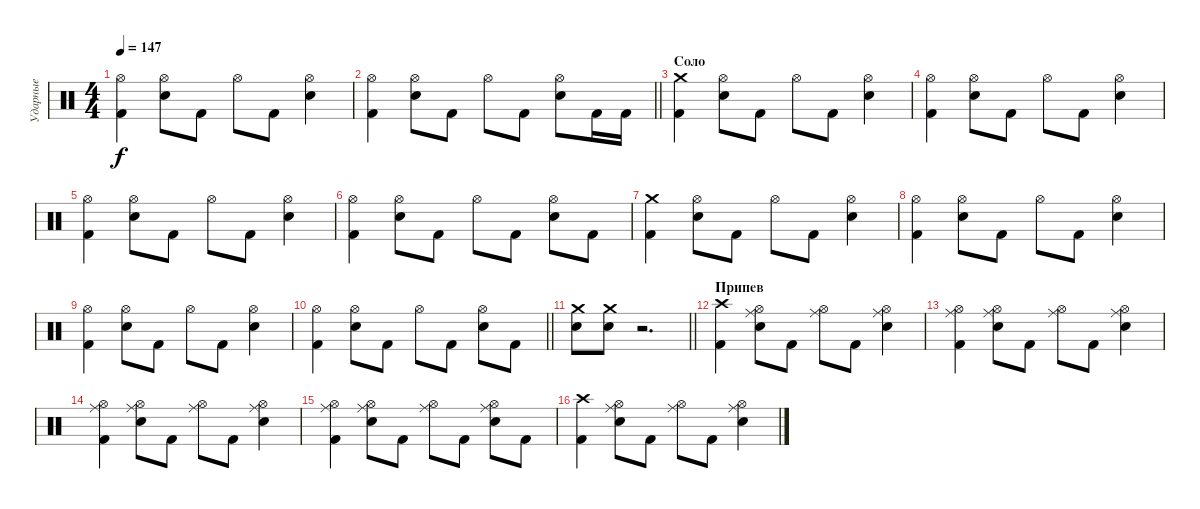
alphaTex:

\track ("Ударные" "Ударные") {instrument percussion}
\staff {score}
\articulation defaults
\ts (4 4)
\tempo 147
\clef neutral
\ks c
("Hi-Hat (open)" "Kick (hit) 2").4{dy f} ("Hi-Hat (open)" "Snare (hit) 2").8 "Kick (hit) 2".8 "Hi-Hat (open)".8 "Kick (hit) 2".8 ("Hi-Hat (open)" "Snare (hit) 2").4 |
\barLineRight lightlight
("Hi-Hat (open)" "Kick (hit) 2").4 ("Hi-Hat (open)" "Snare (hit) 2").8 "Kick (hit) 2".8 "Hi-Hat (open)".8 "Kick (hit) 2".8 ("Hi-Hat (open)" "Snare (hit) 2").8 "Kick (hit) 2".16 "Kick (hit) 2".16 |
\section ("" "Соло")
("Crash medium (hit)" "Kick (hit) 2").4 ("Hi-Hat (open)" "Snare (hit) 2").8 "Kick (hit) 2".8 "Hi-Hat (open)".8 "Kick (hit) 2".8 ("Hi-Hat (open)" "Snare (hit) 2").4 |
("Hi-Hat (open)" "Kick (hit) 2").4 ("Hi-Hat (open)" "Snare (hit) 2").8 "Kick (hit) 2".8 "Hi-Hat (open)".8 "Kick (hit) 2".8 ("Hi-Hat (open)" "Snare (hit) 2").4 |
("Hi-Hat (open)" "Kick (hit) 2").4 ("Hi-Hat (open)" "Snare (hit) 2").8 "Kick (hit) 2".8 "Hi-Hat (open)".8 "Kick (hit) 2".8 ("Hi-Hat (open)" "Snare (hit) 2").4 |
("Hi-Hat (open)" "Kick (hit) 2").4 ("Hi-Hat (open)" "Snare (hit) 2").8 "Kick (hit) 2".8 "Hi-Hat (open)".8 "Kick (hit) 2".8 ("Hi-Hat (open)" "Snare (hit) 2").8 "Kick (hit) 2".8 |
("Crash medium (hit)" "Kick (hit) 2").4 ("Hi-Hat (open)" "Snare (hit) 2").8 "Kick (hit) 2".8 "Hi-Hat (open)".8 "Kick (hit) 2".8 ("Hi-Hat (open)" "Snare (hit) 2").4 |
("Hi-Hat (open)" "Kick (hit) 2").4 ("Hi-Hat (open)" "Snare (hit) 2").8 "Kick (hit) 2".8 "Hi-Hat (open)".8 "Kick (hit) 2".8 ("Hi-Hat (open)" "Snare (hit) 2").4 |
("Hi-Hat (open)" "Kick (hit) 2").4 ("Hi-Hat (open)" "Snare (hit) 2").8 "Kick (hit) 2".8 "Hi-Hat (open)".8 "Kick (hit) 2".8 ("Hi-Hat (open)" "Snare (hit) 2").4 |
\barLineRight lightlight
("Hi-Hat (open)" "Kick (hit) 2").4 ("Hi-Hat (open)" "Snare (hit) 2").8 "Kick (hit) 2".8 "Hi-Hat (open)".8 "Kick (hit) 2".8 ("Hi-Hat (open)" "Snare (hit) 2").8 "Kick (hit) 2".8 |
\barLineRight lightlight
("Crash medium (hit)" "Snare (hit) 2").8 ("Crash medium (hit)" "Snare (hit) 2").8 r.2{d} |
\section ("" "Припев")
("Crash high (hit)" "Kick (hit) 2").4 ("Ride (middle)" "Hi-Hat (open)" "Snare (hit) 2").8 "Kick (hit) 2".8 ("Ride (middle)" "Hi-Hat (open)").8 "Kick (hit) 2".8 ("Ride (middle)" "Hi-Hat (open)" "Snare (hit) 2").4 |
("Ride (middle)" "Hi-Hat (open)" "Kick (hit) 2").4 ("Ride (middle)" "Hi-Hat (open)" "Snare (hit) 2").8 "Kick (hit) 2".8 ("Ride (middle)" "Hi-Hat (open)").8 "Kick (hit) 2".8 ("Ride (middle)" "Hi-Hat (open)" "Snare (hit) 2").4 |
("Ride (middle)" "Hi-Hat (open)" "Kick (hit) 2").4 ("Ride (middle)" "Hi-Hat (open)" "Snare (hit) 2").8 "Kick (hit) 2".8 ("Ride (middle)" "Hi-Hat (open)").8 "Kick (hit) 2".8 ("Ride (middle)" "Hi-Hat (open)" "Snare (hit) 2").4 |
("Ride (middle)" "Hi-Hat (open)" "Kick (hit) 2").4 ("Ride (middle)" "Hi-Hat (open)" "Snare (hit) 2").8 "Kick (hit) 2".8 ("Ride (middle)" "Hi-Hat (open)").8 "Kick (hit) 2".8 ("Ride (middle)" "Hi-Hat (open)" "Snare (hit) 2").8 "Kick (hit) 2".8 |
("Crash high (hit)" "Kick (hit) 2").4 ("Ride (middle)" "Hi-Hat (open)" "Snare (hit) 2").8 "Kick (hit) 2".8 ("Ride (middle)" "Hi-Hat (open)").8 "Kick (hit) 2".8 ("Ride (middle)" "Hi-Hat (open)" "Snare (hit) 2").4
